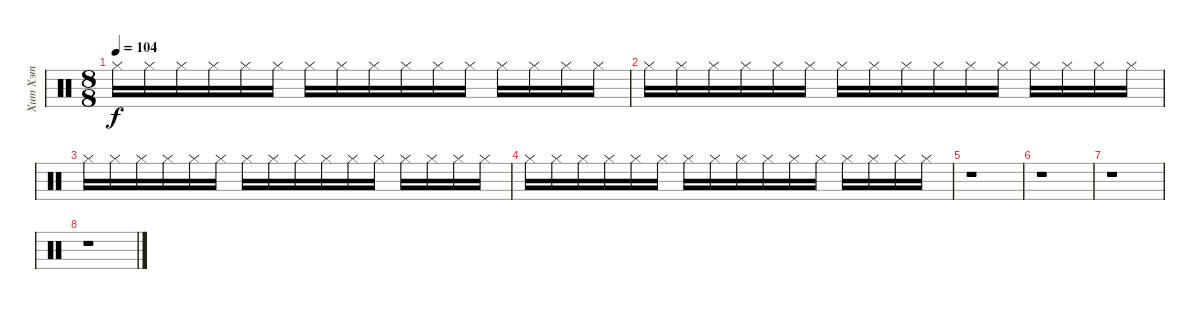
\track ("Хит Хэт" "Хит Хэт") {instrument percussion}
\staff {score}
\articulation defaults
\ts (8 8)
\tempo 104
\clef neutral
\ks c "Hi-Hat (closed)".16{dy f} "Hi-Hat (closed)".16 "Hi-Hat (closed)".16 "Hi-Hat (closed)".16 "Hi-Hat (closed)".16 "Hi-Hat (closed)".16 "Hi-Hat (closed)".16 "Hi-Hat (closed)".16 "Hi-Hat (closed)".16 "Hi-Hat (closed)".16 "Hi-Hat (closed)".16 "Hi-Hat (closed)".16 "Hi-Hat (closed)".16 "Hi-Hat (closed)".16 "Hi-Hat (closed)".16 "Hi-Hat (closed)".16
|
"Hi-Hat (closed)".16 "Hi-Hat (closed)".16 "Hi-Hat (closed)".16 "Hi-Hat (closed)".16 "Hi-Hat (closed)".16 "Hi-Hat (closed)".16 "Hi-Hat (closed)".16 "Hi-Hat (closed)".16 "Hi-Hat (closed)".16 "Hi-Hat (closed)".16 "Hi-Hat (closed)".16 "Hi-Hat (closed)".16 "Hi-Hat (closed)".16 "Hi-Hat (closed)".16 "Hi-Hat (closed)".16 "Hi-Hat (closed)".16 |
"Hi-Hat (closed)".16 "Hi-Hat (closed)".16 "Hi-Hat (closed)".16 "Hi-Hat (closed)".16 "Hi-Hat (closed)".16 "Hi-Hat (closed)".16 "Hi-Hat (closed)".16 "Hi-Hat (closed)".16 "Hi-Hat (closed)".16 "Hi-Hat (closed)".16 "Hi-Hat (closed)".16 "Hi-Hat (closed)".16 "Hi-Hat (closed)".16 "Hi-Hat (closed)".16 "Hi-Hat (closed)".16 "Hi-Hat (closed)".16 |
"Hi-Hat (closed)".16 "Hi-Hat (closed)".16 "Hi-Hat (closed)".16 "Hi-Hat (closed)".16 "Hi-Hat (closed)".16 "Hi-Hat (closed)".16 "Hi-Hat (closed)".16 "Hi-Hat (closed)".16 "Hi-Hat (closed)".16 "Hi-Hat (closed)".16 "Hi-Hat (closed)".16 "Hi-Hat (closed)".16 "Hi-Hat (closed)".16 "Hi-Hat (closed)".16 "Hi-Hat (closed)".16 "Hi-Hat (closed)".16 |
r.1 |
r.1 |
r.1 |
r.1
